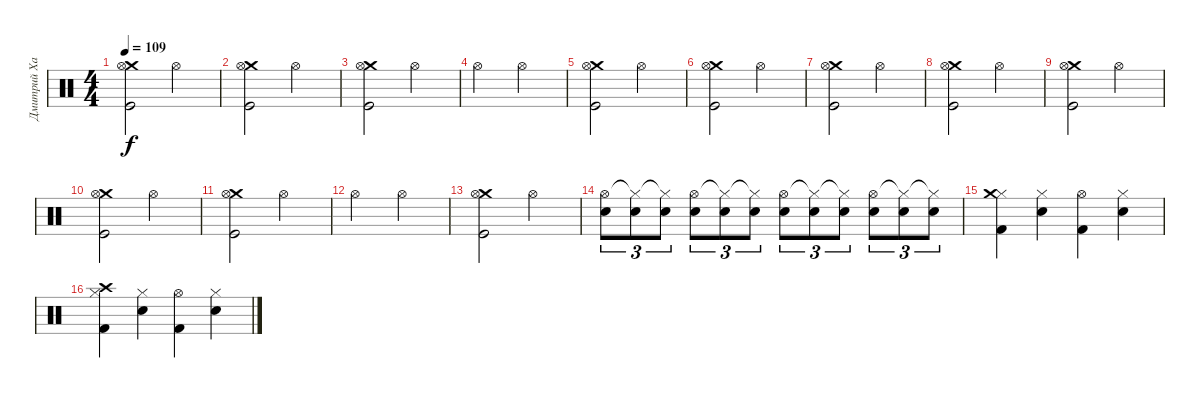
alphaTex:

\track ("Дмитрий Хакимов" "Дмитрий Ха") {instrument percussion}
\staff {score}
\articulation defaults
\ts (4 4)
\tempo 109
\clef neutral
\ks c
("Crash medium (hit)" "Hi-Hat (open)" "Kick (hit)").2{dy f} "Hi-Hat (open)".2 |
("Crash medium (hit)" "Hi-Hat (open)" "Kick (hit)").2 "Hi-Hat (open)".2 |
("Crash medium (hit)" "Hi-Hat (open)" "Kick (hit)").2 "Hi-Hat (open)".2 |
"Hi-Hat (open)".2 "Hi-Hat (open)".2 |
("Crash medium (hit)" "Hi-Hat (open)" "Kick (hit)").2 "Hi-Hat (open)".2 |
("Crash medium (hit)" "Hi-Hat (open)" "Kick (hit)").2 "Hi-Hat (open)".2 |
("Crash medium (hit)" "Hi-Hat (open)" "Kick (hit)").2 "Hi-Hat (open)".2 |
("Crash medium (hit)" "Hi-Hat (open)" "Kick (hit)").2 "Hi-Hat (open)".2 |
("Crash medium (hit)" "Hi-Hat (open)" "Kick (hit)").2 "Hi-Hat (open)".2 |
("Crash medium (hit)" "Hi-Hat (open)" "Kick (hit)").2 "Hi-Hat (open)".2 |
("Crash medium (hit)" "Hi-Hat (open)" "Kick (hit)").2 "Hi-Hat (open)".2 |
"Hi-Hat (open)".2 "Hi-Hat (open)".2 |
("Crash medium (hit)" "Hi-Hat (open)" "Kick (hit)").2 "Hi-Hat (open)".2 |
("Snare (hit) 2" "Hi-Hat (open)").8{tu (3 2)} ("Snare (hit) 2" "Hi-Hat (closed)"{t}).8{tu (3 2)} ("Snare (hit) 2" "Hi-Hat (closed)"{t}).8{tu (3 2)} ("Snare (hit) 2" "Hi-Hat (open)").8{tu (3 2)} ("Snare (hit) 2" "Hi-Hat (closed)"{t}).8{tu (3 2)} ("Snare (hit) 2" "Hi-Hat (closed)"{t}).8{tu (3 2)} ("Snare (hit) 2" "Hi-Hat (open)").8{tu (3 2)} ("Snare (hit) 2" "Hi-Hat (closed)"{t}).8{tu (3 2)} ("Snare (hit) 2" "Hi-Hat (closed)"{t}).8{tu (3 2)} ("Snare (hit) 2" "Hi-Hat (open)").8{tu (3 2)} ("Snare (hit) 2" "Hi-Hat (closed)"{t}).8{tu (3 2)} ("Snare (hit) 2" "Hi-Hat (closed)"{t}).8{tu (3 2)} |
("Hi-Hat (closed)" "Crash medium (hit)" "Kick (hit) 2").4 ("Hi-Hat (closed)" "Snare (hit) 2").4 ("Hi-Hat (open)" "Kick (hit) 2").4 ("Hi-Hat (closed)" "Snare (hit) 2").4 |
("Hi-Hat (closed)" "Kick (hit) 2" "Crash high (hit)").4 ("Hi-Hat (closed)" "Snare (hit) 2").4 ("Hi-Hat (open)" "Kick (hit) 2").4 ("Hi-Hat (closed)" "Snare (hit) 2").4
